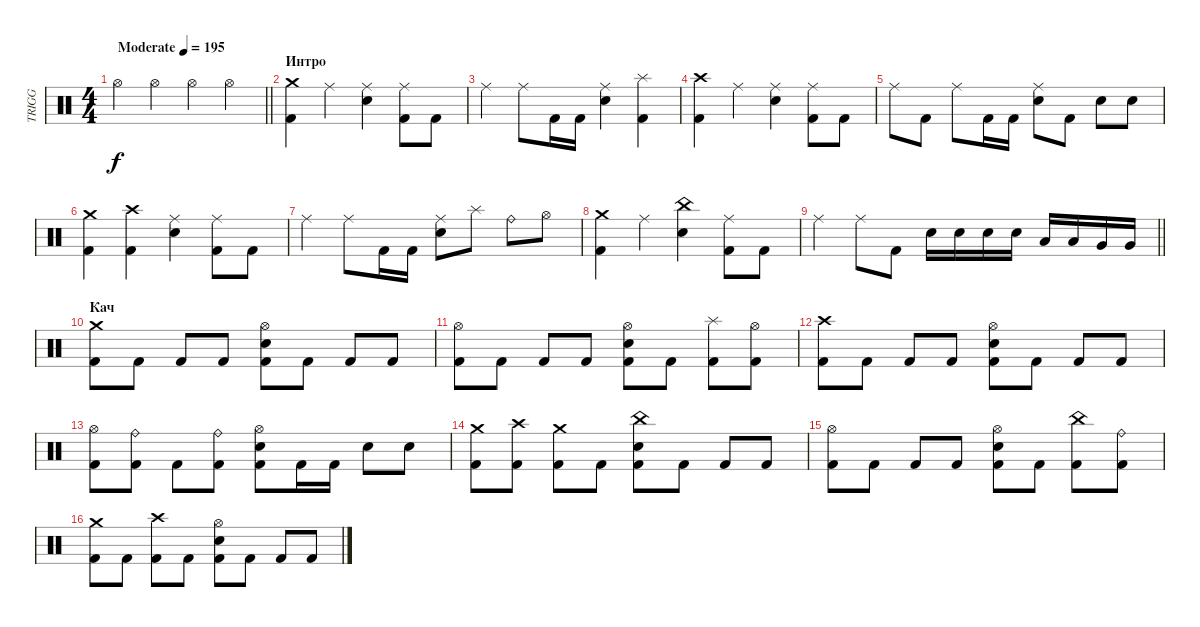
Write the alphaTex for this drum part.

\track ("TRIGG" "TRIGG") {instrument percussion}
\staff {score}
\articulation defaults
\ts (4 4)
\tempo (195 "Moderate")
\clef neutral
\barLineRight lightlight
\ks c "Hi-Hat (open)".4{dy f} "Hi-Hat (open)".4 "Hi-Hat (open)".4 "Hi-Hat (open)".4
|
\section ("" "Интро")
("Crash medium (hit)" "Kick (hit) 2").4 "Ride (middle)".4 ("Ride (middle)" "Electric Snare (hit)").4 ("Ride (middle)" "Kick (hit) 2").8 "Kick (hit) 2".8 |
"Ride (middle)".4 "Ride (middle)".8 "Kick (hit) 2".16 "Kick (hit) 2".16 ("Ride (middle)" "Electric Snare (hit)").4 ("Splash (hit)" "Kick (hit) 2").4 |
("Crash high (hit)" "Kick (hit) 2").4 "Ride (middle)".4 ("Ride (middle)" "Electric Snare (hit)").4 ("Ride (middle)" "Kick (hit) 2").8 "Kick (hit) 2".8 |
"Ride (middle)".8 "Kick (hit) 2".8 "Ride (middle)".8 "Kick (hit) 2".16 "Kick (hit) 2".16 ("Ride (middle)" "Electric Snare (hit)").8 "Kick (hit) 2".8 "Electric Snare (hit)".8 "Electric Snare (hit)".8 |
("Crash medium (hit)" "Kick (hit) 2").4 ("Crash high (hit)" "Kick (hit) 2").4 ("Ride (middle)" "Electric Snare (hit)").4 ("Ride (middle)" "Kick (hit) 2").8 "Kick (hit) 2".8 |
"Ride (middle)".4 "Ride (middle)".8 "Kick (hit) 2".16 "Kick (hit) 2".16 ("Ride (middle)" "Electric Snare (hit)").8 "Splash (hit)".8 "Ride (bell)".8 "Hi-Hat (open)".8 |
("Crash medium (hit)" "Kick (hit) 2").4 "Ride (middle)".4 ("China (hit)" "Electric Snare (hit)").4 ("Ride (middle)" "Kick (hit) 2").8 "Kick (hit) 2".8 |
\barLineRight lightlight "Ride (middle)".4 "Ride (middle)".8 "Kick (hit) 2".8 "Electric Snare (hit)".16 "Electric Snare (hit)".16 "Electric Snare (hit)".16 "Electric Snare (hit)".16 "Low Tom (hit)".16 "Low Tom (hit)".16 "Very Low Tom (hit)".16 "Very Low Tom (hit)".16
|
\section ("" "Кач")
("Crash medium (hit)" "Kick (hit) 2").8 "Kick (hit) 2".8 "Kick (hit) 2".8 "Kick (hit) 2".8 ("Hi-Hat (open)" "Electric Snare (hit)" "Kick (hit) 2").8 "Kick (hit) 2".8 "Kick (hit) 2".8 "Kick (hit) 2".8 |
("Hi-Hat (open)" "Kick (hit) 2").8 "Kick (hit) 2".8 "Kick (hit) 2".8 "Kick (hit) 2".8 ("Hi-Hat (open)" "Electric Snare (hit)" "Kick (hit) 2").8 "Kick (hit) 2".8 ("Splash (hit)" "Kick (hit) 2").8 ("Hi-Hat (open)" "Kick (hit) 2").8 |
("Crash high (hit)" "Kick (hit) 2").8 "Kick (hit) 2".8 "Kick (hit) 2".8 "Kick (hit) 2".8 ("Hi-Hat (open)" "Electric Snare (hit)" "Kick (hit) 2").8 "Kick (hit) 2".8 "Kick (hit) 2".8 "Kick (hit) 2".8 |
("Hi-Hat (open)" "Kick (hit) 2").8 ("Ride (bell)" "Kick (hit) 2").8 "Kick (hit) 2".8 ("Ride (bell)" "Kick (hit) 2").8 ("Hi-Hat (open)" "Electric Snare (hit)" "Kick (hit) 2").8 "Kick (hit) 2".16 "Kick (hit) 2".16 "Electric Snare (hit)".8 "Electric Snare (hit)".8 |
("Crash medium (hit)" "Kick (hit) 2").8 ("Crash high (hit)" "Kick (hit) 2").8 ("Crash medium (hit)" "Kick (hit) 2").8 "Kick (hit) 2".8 ("China (hit)" "Electric Snare (hit)" "Kick (hit) 2").8 "Kick (hit) 2".8 "Kick (hit) 2".8 "Kick (hit) 2".8 |
("Hi-Hat (open)" "Kick (hit) 2").8 "Kick (hit) 2".8 "Kick (hit) 2".8 "Kick (hit) 2".8 ("Hi-Hat (open)" "Electric Snare (hit)" "Kick (hit) 2").8 "Kick (hit) 2".8 ("China (hit)" "Kick (hit) 2").8 ("Ride (bell)" "Kick (hit) 2").8 |
("Crash medium (hit)" "Kick (hit) 2").8 "Kick (hit) 2".8 ("Crash high (hit)" "Kick (hit) 2").8 "Kick (hit) 2".8 ("Hi-Hat (open)" "Electric Snare (hit)" "Kick (hit) 2").8 "Kick (hit) 2".8 "Kick (hit) 2".8 "Kick (hit) 2".8
